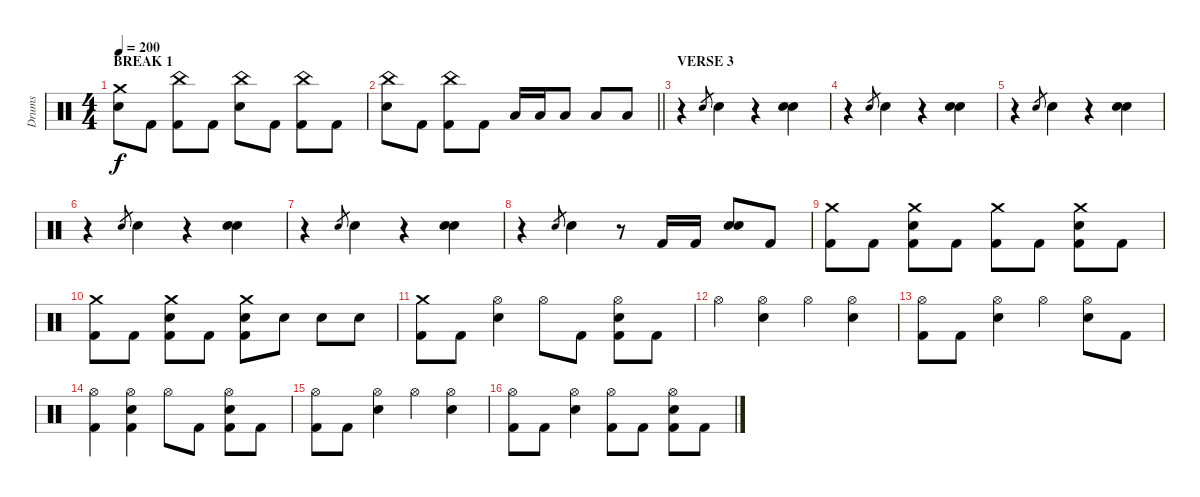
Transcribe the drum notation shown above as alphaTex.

\track ("Drums" "Drums") {instrument percussion}
\staff {score}
\articulation defaults
\ts (4 4)
\section ("" "BREAK 1")
\tempo 200
\clef neutral
\ks c
("Crash medium (hit)" "Electric Snare (hit)").8{dy f} "Kick (hit) 2".8 ("China (hit)" "Kick (hit) 2").8 "Kick (hit) 2".8 ("China (hit)" "Electric Snare (hit)").8 "Kick (hit) 2".8 ("China (hit)" "Kick (hit) 2").8 "Kick (hit) 2".8 |
\barLineRight lightlight
("China (hit)" "Electric Snare (hit)").8 "Kick (hit) 2".8 ("China (hit)" "Kick (hit) 2").8 "Kick (hit) 2".8 "Low Tom (hit)".16 "Low Tom (hit)".16 "Low Tom (hit)".8 "Low Floor Tom (hit)".8 "Low Floor Tom (hit)".8 |
\section ("" "VERSE 3")
r.4 "Electric Snare (hit)".8{gr} "Electric Snare (hit)".4 r.4 ("Electric Snare (hit)" "Electric Snare (hit)").4 |
r.4 "Electric Snare (hit)".8{gr} "Electric Snare (hit)".4 r.4 ("Electric Snare (hit)" "Electric Snare (hit)").4 |
r.4 "Electric Snare (hit)".8{gr} "Electric Snare (hit)".4 r.4 ("Electric Snare (hit)" "Electric Snare (hit)").4 |
r.4 "Electric Snare (hit)".8{gr} "Electric Snare (hit)".4 r.4 ("Electric Snare (hit)" "Electric Snare (hit)").4 |
r.4 "Electric Snare (hit)".8{gr} "Electric Snare (hit)".4 r.4 ("Electric Snare (hit)" "Electric Snare (hit)").4 |
r.4 "Electric Snare (hit)".8{gr} "Electric Snare (hit)".4 r.8 "Kick (hit) 2".16 "Kick (hit) 2".16 ("Electric Snare (hit)" "Electric Snare (hit)").8 "Kick (hit) 2".8 |
("Crash medium (hit)" "Kick (hit) 2").8 "Kick (hit) 2".8 ("Crash medium (hit)" "Electric Snare (hit)" "Kick (hit) 2").8 "Kick (hit) 2".8 ("Crash medium (hit)" "Kick (hit) 2").8 "Kick (hit) 2".8 ("Crash medium (hit)" "Electric Snare (hit)" "Kick (hit) 2").8 "Kick (hit) 2".8 |
("Crash medium (hit)" "Kick (hit) 2").8 "Kick (hit) 2".8 ("Crash medium (hit)" "Electric Snare (hit)" "Kick (hit) 2").8 "Kick (hit) 2".8 ("Crash medium (hit)" "Electric Snare (hit)" "Kick (hit) 2").8 "Electric Snare (hit)".8 "Electric Snare (hit)".8 "Electric Snare (hit)".8 |
("Crash medium (hit)" "Kick (hit) 2").8 "Kick (hit) 2".8 ("Hi-Hat (open)" "Electric Snare (hit)").4 "Hi-Hat (open)".8 "Kick (hit) 2".8 ("Hi-Hat (open)" "Electric Snare (hit)" "Kick (hit) 2").8 "Kick (hit) 2".8 |
"Hi-Hat (open)".4 ("Hi-Hat (open)" "Electric Snare (hit)").4 "Hi-Hat (open)".4 ("Hi-Hat (open)" "Electric Snare (hit)").4 |
("Hi-Hat (open)" "Kick (hit) 2").8 "Kick (hit) 2".8 ("Hi-Hat (open)" "Electric Snare (hit)").4 "Hi-Hat (open)".4 ("Hi-Hat (open)" "Electric Snare (hit)").8 "Kick (hit) 2".8 |
("Hi-Hat (open)" "Kick (hit) 2").4 ("Hi-Hat (open)" "Electric Snare (hit)" "Kick (hit) 2").4 "Hi-Hat (open)".8 "Kick (hit) 2".8 ("Hi-Hat (open)" "Electric Snare (hit)" "Kick (hit) 2").8 "Kick (hit) 2".8 |
("Hi-Hat (open)" "Kick (hit) 2").8 "Kick (hit) 2".8 ("Hi-Hat (open)" "Electric Snare (hit)").4 "Hi-Hat (open)".4 ("Hi-Hat (open)" "Electric Snare (hit)").4 |
("Hi-Hat (open)" "Kick (hit) 2").8 "Kick (hit) 2".8 ("Hi-Hat (open)" "Electric Snare (hit)").4 ("Hi-Hat (open)" "Kick (hit) 2").8 "Kick (hit) 2".8 ("Hi-Hat (open)" "Electric Snare (hit)" "Kick (hit) 2").8 "Kick (hit) 2".8
